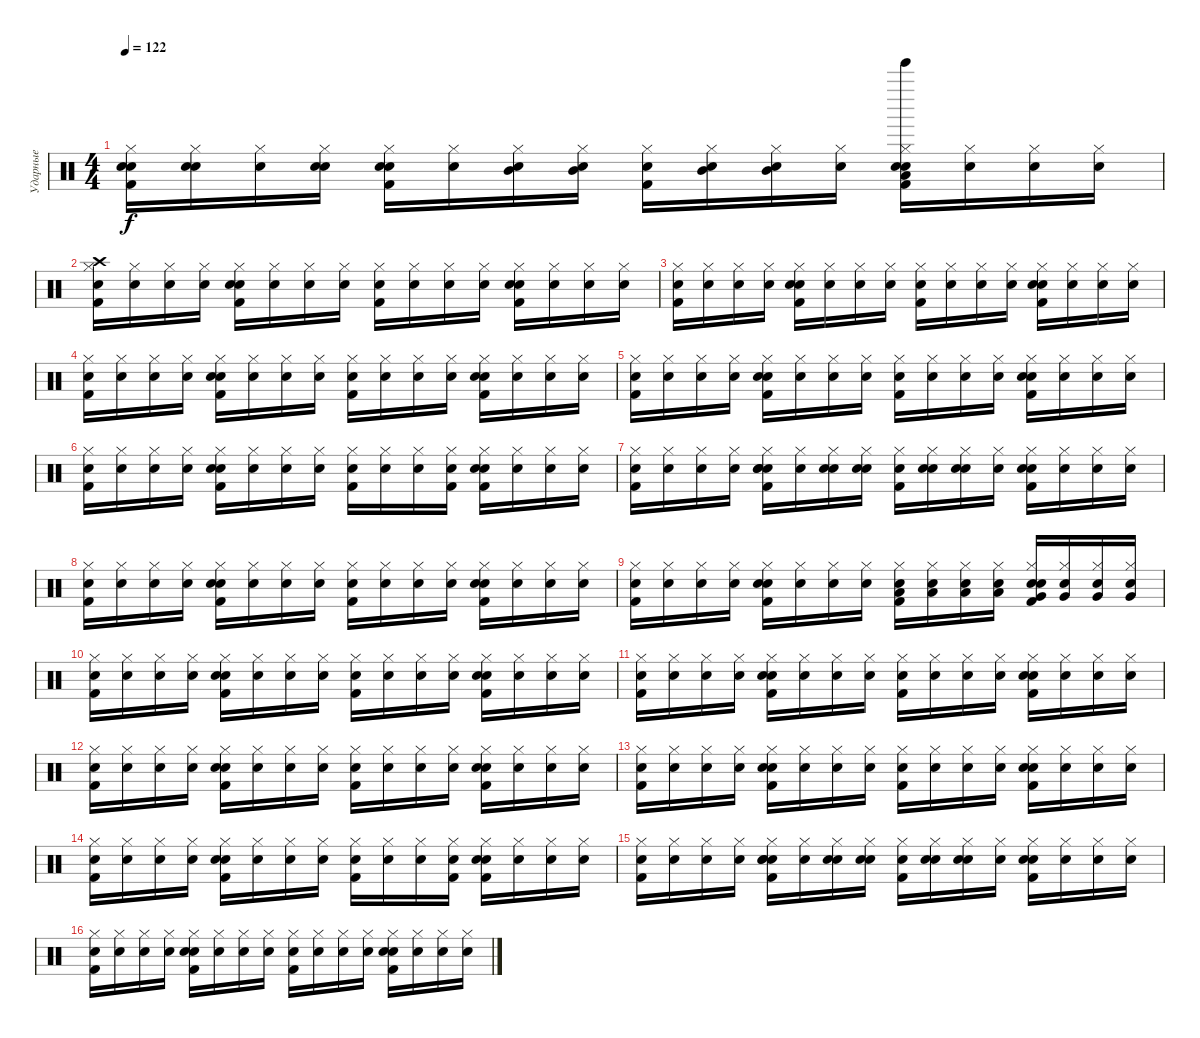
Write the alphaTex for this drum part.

\track ("Ударные" "Ударные") {instrument percussion}
\staff {score}
\articulation defaults
\ts (4 4)
\tempo 122
\clef neutral
\ks c
("Snare (hit)" "Hand Clap (hit)" "Kick (hit) 2" "Hi-Hat (closed)").16{dy f} ("Snare (hit)" "Hand Clap (hit)" "Hi-Hat (closed)").16 ("Snare (hit)" "Hi-Hat (closed)").16 ("Snare (hit)" "Hand Clap (hit)" "Hi-Hat (closed)").16 ("Snare (hit)" "Kick (hit) 2" "Snare (hit) 2" "Hi-Hat (closed)").16 ("Snare (hit)" "Hi-Hat (closed)").16 ("Snare (hit)" "Mid Tom (hit)" "Hi-Hat (closed)").16 ("Snare (hit)" "Mid Tom (hit)" "Hi-Hat (closed)").16 ("Snare (hit)" "Kick (hit) 2" "Hi-Hat (closed)").16 ("Snare (hit)" "Mid Tom (hit)" "Hi-Hat (closed)").16 ("Snare (hit)" "Hi-Hat (closed)" "Mid Tom (hit)").16 ("Snare (hit)" "Hi-Hat (closed)").16 ("Snare (hit)" "Low Tom (hit)" "Kick (hit) 2" "Snare (hit) 2" "Hi-Hat (closed)" "Tinkle Bell (hit)").16 ("Snare (hit)" "Hi-Hat (closed)").16 ("Snare (hit)" "Hi-Hat (closed)").16 ("Snare (hit)" "Hi-Hat (closed)").16 |
("Snare (hit)" "Crash high (hit)" "Kick (hit) 2" "Hi-Hat (closed)").16 ("Snare (hit)" "Hi-Hat (closed)").16 ("Snare (hit)" "Hi-Hat (closed)").16 ("Snare (hit)" "Hi-Hat (closed)").16 ("Snare (hit)" "Kick (hit) 2" "Snare (hit) 2" "Hi-Hat (closed)").16 ("Snare (hit)" "Hi-Hat (closed)").16 ("Snare (hit)" "Hi-Hat (closed)").16 ("Snare (hit)" "Hi-Hat (closed)").16 ("Snare (hit)" "Kick (hit) 2" "Hi-Hat (closed)").16 ("Snare (hit)" "Hi-Hat (closed)").16 ("Snare (hit)" "Hi-Hat (closed)").16 ("Snare (hit)" "Hi-Hat (closed)").16 ("Snare (hit)" "Kick (hit) 2" "Snare (hit) 2" "Hi-Hat (closed)").16 ("Snare (hit)" "Hi-Hat (closed)").16 ("Snare (hit)" "Hi-Hat (closed)").16 ("Snare (hit)" "Hi-Hat (closed)").16 |
("Snare (hit)" "Kick (hit) 2" "Hi-Hat (closed)").16 ("Snare (hit)" "Hi-Hat (closed)").16 ("Snare (hit)" "Hi-Hat (closed)").16 ("Snare (hit)" "Hi-Hat (closed)").16 ("Snare (hit)" "Kick (hit) 2" "Snare (hit) 2" "Hi-Hat (closed)").16 ("Snare (hit)" "Hi-Hat (closed)").16 ("Snare (hit)" "Hi-Hat (closed)").16 ("Snare (hit)" "Hi-Hat (closed)").16 ("Snare (hit)" "Kick (hit) 2" "Hi-Hat (closed)").16 ("Snare (hit)" "Hi-Hat (closed)").16 ("Snare (hit)" "Hi-Hat (closed)").16 ("Snare (hit)" "Hi-Hat (closed)").16 ("Snare (hit)" "Kick (hit) 2" "Snare (hit) 2" "Hi-Hat (closed)").16 ("Snare (hit)" "Hi-Hat (closed)").16 ("Snare (hit)" "Hi-Hat (closed)").16 ("Snare (hit)" "Hi-Hat (closed)").16 |
("Snare (hit)" "Kick (hit) 2" "Hi-Hat (closed)").16 ("Snare (hit)" "Hi-Hat (closed)").16 ("Snare (hit)" "Hi-Hat (closed)").16 ("Snare (hit)" "Hi-Hat (closed)").16 ("Snare (hit)" "Kick (hit) 2" "Snare (hit) 2" "Hi-Hat (closed)").16 ("Snare (hit)" "Hi-Hat (closed)").16 ("Snare (hit)" "Hi-Hat (closed)").16 ("Snare (hit)" "Hi-Hat (closed)").16 ("Snare (hit)" "Kick (hit) 2" "Hi-Hat (closed)").16 ("Snare (hit)" "Hi-Hat (closed)").16 ("Snare (hit)" "Hi-Hat (closed)").16 ("Snare (hit)" "Hi-Hat (closed)").16 ("Snare (hit)" "Kick (hit) 2" "Snare (hit) 2" "Hi-Hat (closed)").16 ("Snare (hit)" "Hi-Hat (closed)").16 ("Snare (hit)" "Hi-Hat (closed)").16 ("Snare (hit)" "Hi-Hat (closed)").16 |
("Snare (hit)" "Kick (hit) 2" "Hi-Hat (closed)").16 ("Snare (hit)" "Hi-Hat (closed)").16 ("Snare (hit)" "Hi-Hat (closed)").16 ("Snare (hit)" "Hi-Hat (closed)").16 ("Snare (hit)" "Kick (hit) 2" "Snare (hit) 2" "Hi-Hat (closed)").16 ("Snare (hit)" "Hi-Hat (closed)").16 ("Snare (hit)" "Hi-Hat (closed)").16 ("Snare (hit)" "Hi-Hat (closed)").16 ("Snare (hit)" "Kick (hit) 2" "Hi-Hat (closed)").16 ("Snare (hit)" "Hi-Hat (closed)").16 ("Snare (hit)" "Hi-Hat (closed)").16 ("Snare (hit)" "Hi-Hat (closed)").16 ("Snare (hit)" "Kick (hit) 2" "Snare (hit) 2" "Hi-Hat (closed)").16 ("Snare (hit)" "Hi-Hat (closed)").16 ("Snare (hit)" "Hi-Hat (closed)").16 ("Snare (hit)" "Hi-Hat (closed)").16 |
("Snare (hit)" "Kick (hit) 2" "Hi-Hat (closed)").16 ("Snare (hit)" "Hi-Hat (closed)").16 ("Snare (hit)" "Hi-Hat (closed)").16 ("Snare (hit)" "Hi-Hat (closed)").16 ("Snare (hit)" "Kick (hit) 2" "Snare (hit) 2" "Hi-Hat (closed)").16 ("Snare (hit)" "Hi-Hat (closed)").16 ("Snare (hit)" "Hi-Hat (closed)").16 ("Snare (hit)" "Hi-Hat (closed)").16 ("Snare (hit)" "Kick (hit) 2" "Hi-Hat (closed)").16 ("Snare (hit)" "Hi-Hat (closed)").16 ("Snare (hit)" "Hi-Hat (closed)").16 ("Snare (hit)" "Kick (hit) 2" "Hi-Hat (closed)").16 ("Snare (hit)" "Kick (hit) 2" "Snare (hit) 2" "Hi-Hat (closed)").16 ("Snare (hit)" "Hi-Hat (closed)").16 ("Snare (hit)" "Hi-Hat (closed)").16 ("Snare (hit)" "Hi-Hat (closed)").16 |
("Snare (hit)" "Kick (hit) 2" "Hi-Hat (closed)").16 ("Snare (hit)" "Hi-Hat (closed)").16 ("Snare (hit)" "Hi-Hat (closed)").16 ("Snare (hit)" "Hi-Hat (closed)").16 ("Snare (hit)" "Hand Clap (hit)" "Kick (hit) 2" "Snare (hit) 2" "Hi-Hat (closed)").16 ("Snare (hit)" "Hi-Hat (closed)").16 ("Snare (hit)" "Hand Clap (hit)" "Hi-Hat (closed)").16 ("Snare (hit)" "Hand Clap (hit)" "Hi-Hat (closed)").16 ("Snare (hit)" "Kick (hit) 2" "Hi-Hat (closed)").16 ("Snare (hit)" "Hand Clap (hit)" "Hi-Hat (closed)").16 ("Snare (hit)" "Hand Clap (hit)" "Hi-Hat (closed)").16 ("Snare (hit)" "Hi-Hat (closed)").16 ("Snare (hit)" "Kick (hit) 2" "Snare (hit) 2" "Hi-Hat (closed)").16 ("Snare (hit)" "Hi-Hat (closed)").16 ("Snare (hit)" "Hi-Hat (closed)").16 ("Snare (hit)" "Hi-Hat (closed)").16 |
("Snare (hit)" "Kick (hit) 2" "Hi-Hat (closed)").16 ("Snare (hit)" "Hi-Hat (closed)").16 ("Snare (hit)" "Hi-Hat (closed)").16 ("Snare (hit)" "Hi-Hat (closed)").16 ("Snare (hit)" "Kick (hit) 2" "Snare (hit) 2" "Hi-Hat (closed)").16 ("Snare (hit)" "Hi-Hat (closed)").16 ("Snare (hit)" "Hi-Hat (closed)").16 ("Snare (hit)" "Hi-Hat (closed)").16 ("Snare (hit)" "Kick (hit) 2" "Hi-Hat (closed)").16 ("Snare (hit)" "Hi-Hat (closed)").16 ("Snare (hit)" "Hi-Hat (closed)").16 ("Snare (hit)" "Hi-Hat (closed)").16 ("Snare (hit)" "Kick (hit) 2" "Snare (hit) 2" "Hi-Hat (closed)").16 ("Snare (hit)" "Hi-Hat (closed)").16 ("Snare (hit)" "Hi-Hat (closed)").16 ("Snare (hit)" "Hi-Hat (closed)").16 |
("Snare (hit)" "Kick (hit) 2" "Hi-Hat (closed)").16 ("Snare (hit)" "Hi-Hat (closed)").16 ("Snare (hit)" "Hi-Hat (closed)").16 ("Snare (hit)" "Hi-Hat (closed)").16 ("Snare (hit)" "Kick (hit) 2" "Snare (hit) 2" "Hi-Hat (closed)").16 ("Snare (hit)" "Hi-Hat (closed)").16 ("Snare (hit)" "Hi-Hat (closed)").16 ("Snare (hit)" "Hi-Hat (closed)").16 ("Snare (hit)" "Low Tom (hit)" "Kick (hit) 2" "Hi-Hat (closed)").16 ("Snare (hit)" "Low Tom (hit)" "Hi-Hat (closed)").16 ("Snare (hit)" "Low Tom (hit)" "Hi-Hat (closed)").16 ("Snare (hit)" "Low Tom (hit)" "Hi-Hat (closed)").16 ("Snare (hit)" "Very Low Tom (hit)" "Kick (hit) 2" "Snare (hit) 2" "Hi-Hat (closed)").16 ("Snare (hit)" "Very Low Tom (hit)" "Hi-Hat (closed)").16 ("Snare (hit)" "Very Low Tom (hit)" "Hi-Hat (closed)").16 ("Snare (hit)" "Very Low Tom (hit)" "Hi-Hat (closed)").16 |
("Snare (hit)" "Kick (hit) 2" "Hi-Hat (closed)").16 ("Snare (hit)" "Hi-Hat (closed)").16 ("Snare (hit)" "Hi-Hat (closed)").16 ("Snare (hit)" "Hi-Hat (closed)").16 ("Snare (hit)" "Kick (hit) 2" "Snare (hit) 2" "Hi-Hat (closed)").16 ("Snare (hit)" "Hi-Hat (closed)").16 ("Snare (hit)" "Hi-Hat (closed)").16 ("Snare (hit)" "Hi-Hat (closed)").16 ("Snare (hit)" "Kick (hit) 2" "Hi-Hat (closed)").16 ("Snare (hit)" "Hi-Hat (closed)").16 ("Snare (hit)" "Hi-Hat (closed)").16 ("Snare (hit)" "Hi-Hat (closed)").16 ("Snare (hit)" "Kick (hit) 2" "Snare (hit) 2" "Hi-Hat (closed)").16 ("Snare (hit)" "Hi-Hat (closed)").16 ("Snare (hit)" "Hi-Hat (closed)").16 ("Snare (hit)" "Hi-Hat (closed)").16 |
("Snare (hit)" "Kick (hit) 2" "Hi-Hat (closed)").16 ("Snare (hit)" "Hi-Hat (closed)").16 ("Snare (hit)" "Hi-Hat (closed)").16 ("Snare (hit)" "Hi-Hat (closed)").16 ("Snare (hit)" "Kick (hit) 2" "Snare (hit) 2" "Hi-Hat (closed)").16 ("Snare (hit)" "Hi-Hat (closed)").16 ("Snare (hit)" "Hi-Hat (closed)").16 ("Snare (hit)" "Hi-Hat (closed)").16 ("Snare (hit)" "Kick (hit) 2" "Hi-Hat (closed)").16 ("Snare (hit)" "Hi-Hat (closed)").16 ("Snare (hit)" "Hi-Hat (closed)").16 ("Snare (hit)" "Hi-Hat (closed)").16 ("Snare (hit)" "Kick (hit) 2" "Snare (hit) 2" "Hi-Hat (closed)").16 ("Snare (hit)" "Hi-Hat (closed)").16 ("Snare (hit)" "Hi-Hat (closed)").16 ("Snare (hit)" "Hi-Hat (closed)").16 |
("Snare (hit)" "Kick (hit) 2" "Hi-Hat (closed)").16 ("Snare (hit)" "Hi-Hat (closed)").16 ("Snare (hit)" "Hi-Hat (closed)").16 ("Snare (hit)" "Hi-Hat (closed)").16 ("Snare (hit)" "Kick (hit) 2" "Snare (hit) 2" "Hi-Hat (closed)").16 ("Snare (hit)" "Hi-Hat (closed)").16 ("Snare (hit)" "Hi-Hat (closed)").16 ("Snare (hit)" "Hi-Hat (closed)").16 ("Snare (hit)" "Kick (hit) 2" "Hi-Hat (closed)").16 ("Snare (hit)" "Hi-Hat (closed)").16 ("Snare (hit)" "Hi-Hat (closed)").16 ("Snare (hit)" "Hi-Hat (closed)").16 ("Snare (hit)" "Kick (hit) 2" "Snare (hit) 2" "Hi-Hat (closed)").16 ("Snare (hit)" "Hi-Hat (closed)").16 ("Snare (hit)" "Hi-Hat (closed)").16 ("Snare (hit)" "Hi-Hat (closed)").16 |
("Snare (hit)" "Kick (hit) 2" "Hi-Hat (closed)").16 ("Snare (hit)" "Hi-Hat (closed)").16 ("Snare (hit)" "Hi-Hat (closed)").16 ("Snare (hit)" "Hi-Hat (closed)").16 ("Snare (hit)" "Kick (hit) 2" "Snare (hit) 2" "Hi-Hat (closed)").16 ("Snare (hit)" "Hi-Hat (closed)").16 ("Snare (hit)" "Hi-Hat (closed)").16 ("Snare (hit)" "Hi-Hat (closed)").16 ("Snare (hit)" "Kick (hit) 2" "Hi-Hat (closed)").16 ("Snare (hit)" "Hi-Hat (closed)").16 ("Snare (hit)" "Hi-Hat (closed)").16 ("Snare (hit)" "Hi-Hat (closed)").16 ("Snare (hit)" "Kick (hit) 2" "Snare (hit) 2" "Hi-Hat (closed)").16 ("Snare (hit)" "Hi-Hat (closed)").16 ("Snare (hit)" "Hi-Hat (closed)").16 ("Snare (hit)" "Hi-Hat (closed)").16 |
("Snare (hit)" "Kick (hit) 2" "Hi-Hat (closed)").16 ("Snare (hit)" "Hi-Hat (closed)").16 ("Snare (hit)" "Hi-Hat (closed)").16 ("Snare (hit)" "Hi-Hat (closed)").16 ("Snare (hit)" "Kick (hit) 2" "Snare (hit) 2" "Hi-Hat (closed)").16 ("Snare (hit)" "Hi-Hat (closed)").16 ("Snare (hit)" "Hi-Hat (closed)").16 ("Snare (hit)" "Hi-Hat (closed)").16 ("Snare (hit)" "Kick (hit) 2" "Hi-Hat (closed)").16 ("Snare (hit)" "Hi-Hat (closed)").16 ("Snare (hit)" "Hi-Hat (closed)").16 ("Snare (hit)" "Kick (hit) 2" "Hi-Hat (closed)").16 ("Snare (hit)" "Kick (hit) 2" "Snare (hit) 2" "Hi-Hat (closed)").16 ("Snare (hit)" "Hi-Hat (closed)").16 ("Snare (hit)" "Hi-Hat (closed)").16 ("Snare (hit)" "Hi-Hat (closed)").16 |
("Snare (hit)" "Kick (hit) 2" "Hi-Hat (closed)").16 ("Snare (hit)" "Hi-Hat (closed)").16 ("Snare (hit)" "Hi-Hat (closed)").16 ("Snare (hit)" "Hi-Hat (closed)").16 ("Snare (hit)" "Hand Clap (hit)" "Kick (hit) 2" "Snare (hit) 2" "Hi-Hat (closed)").16 ("Snare (hit)" "Hi-Hat (closed)").16 ("Snare (hit)" "Hand Clap (hit)" "Hi-Hat (closed)").16 ("Snare (hit)" "Hand Clap (hit)" "Hi-Hat (closed)").16 ("Snare (hit)" "Kick (hit) 2" "Hi-Hat (closed)").16 ("Snare (hit)" "Hand Clap (hit)" "Hi-Hat (closed)").16 ("Snare (hit)" "Hand Clap (hit)" "Hi-Hat (closed)").16 ("Snare (hit)" "Hi-Hat (closed)").16 ("Snare (hit)" "Kick (hit) 2" "Snare (hit) 2" "Hi-Hat (closed)").16 ("Snare (hit)" "Hi-Hat (closed)").16 ("Snare (hit)" "Hi-Hat (closed)").16 ("Snare (hit)" "Hi-Hat (closed)").16 |
("Snare (hit)" "Kick (hit) 2" "Hi-Hat (closed)").16 ("Snare (hit)" "Hi-Hat (closed)").16 ("Snare (hit)" "Hi-Hat (closed)").16 ("Snare (hit)" "Hi-Hat (closed)").16 ("Snare (hit)" "Kick (hit) 2" "Snare (hit) 2" "Hi-Hat (closed)").16 ("Snare (hit)" "Hi-Hat (closed)").16 ("Snare (hit)" "Hi-Hat (closed)").16 ("Snare (hit)" "Hi-Hat (closed)").16 ("Snare (hit)" "Kick (hit) 2" "Hi-Hat (closed)").16 ("Snare (hit)" "Hi-Hat (closed)").16 ("Snare (hit)" "Hi-Hat (closed)").16 ("Snare (hit)" "Hi-Hat (closed)").16 ("Snare (hit)" "Kick (hit) 2" "Snare (hit) 2" "Hi-Hat (closed)").16 ("Snare (hit)" "Hi-Hat (closed)").16 ("Snare (hit)" "Hi-Hat (closed)").16 ("Snare (hit)" "Hi-Hat (closed)").16
